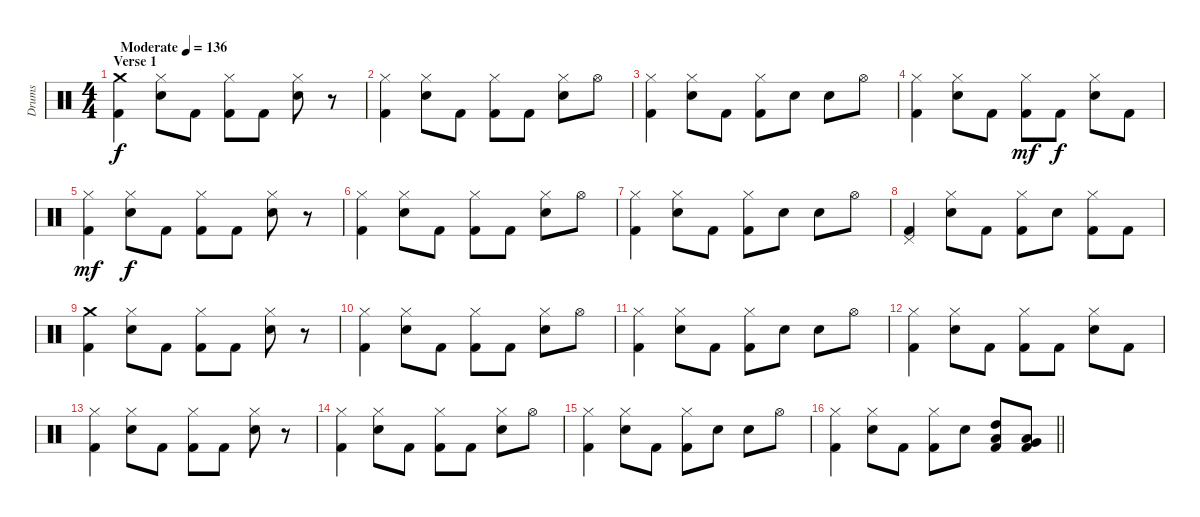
\track ("Drums" "Drums") {instrument percussion}
\staff {score}
\articulation defaults
\ts (4 4)
\section ("" "Verse 1")
\tempo (136 "Moderate")
\clef neutral
\ks c
("Crash medium (hit)" "Kick (hit) 2").4{dy f} ("Hi-Hat (closed)" "Snare (hit) 2").8 "Kick (hit) 2".8 ("Hi-Hat (closed)" "Kick (hit) 2").8 "Kick (hit) 2".8 ("Hi-Hat (closed)" "Snare (hit) 2").8 r.8 |
("Hi-Hat (closed)" "Kick (hit) 2").4 ("Hi-Hat (closed)" "Snare (hit) 2").8 "Kick (hit) 2".8 ("Hi-Hat (closed)" "Kick (hit) 2").8 "Kick (hit) 2".8 ("Hi-Hat (closed)" "Snare (hit) 2").8 "Hi-Hat (open)".8 |
("Hi-Hat (closed)" "Kick (hit) 2").4 ("Hi-Hat (closed)" "Snare (hit) 2").8 "Kick (hit) 2".8 ("Hi-Hat (closed)" "Kick (hit) 2").8 "Snare (hit) 2".8 "Snare (hit) 2".8 "Hi-Hat (open)".8 |
("Hi-Hat (closed)" "Kick (hit) 2").4 ("Hi-Hat (closed)" "Snare (hit) 2").8 "Kick (hit) 2".8 ("Hi-Hat (closed)" "Kick (hit) 2").8{dy mf} "Kick (hit) 2".8{dy f} ("Hi-Hat (closed)" "Snare (hit) 2").8 "Kick (hit) 2".8 |
("Hi-Hat (closed)" "Kick (hit) 2").4{dy mf} ("Hi-Hat (closed)" "Snare (hit) 2").8{dy f} "Kick (hit) 2".8 ("Hi-Hat (closed)" "Kick (hit) 2").8 "Kick (hit) 2".8 ("Hi-Hat (closed)" "Snare (hit) 2").8 r.8 |
("Hi-Hat (closed)" "Kick (hit) 2").4 ("Hi-Hat (closed)" "Snare (hit) 2").8 "Kick (hit) 2".8 ("Hi-Hat (closed)" "Kick (hit) 2").8 "Kick (hit) 2".8 ("Hi-Hat (closed)" "Snare (hit) 2").8 "Hi-Hat (open)".8 |
("Hi-Hat (closed)" "Kick (hit) 2").4 ("Hi-Hat (closed)" "Snare (hit) 2").8 "Kick (hit) 2".8 ("Hi-Hat (closed)" "Kick (hit) 2").8 "Snare (hit) 2".8 "Snare (hit) 2".8 "Hi-Hat (open)".8 |
("Pedal Hi-Hat (hit)" "Kick (hit) 2").4 ("Hi-Hat (closed)" "Snare (hit) 2").8 "Kick (hit) 2".8 ("Hi-Hat (closed)" "Kick (hit) 2").8 "Snare (hit) 2".8 ("Hi-Hat (closed)" "Kick (hit) 2").8 "Kick (hit) 2".8 |
("Crash medium (hit)" "Kick (hit) 2").4 ("Hi-Hat (closed)" "Snare (hit) 2").8 "Kick (hit) 2".8 ("Hi-Hat (closed)" "Kick (hit) 2").8 "Kick (hit) 2".8 ("Hi-Hat (closed)" "Snare (hit) 2").8 r.8 |
("Hi-Hat (closed)" "Kick (hit) 2").4 ("Hi-Hat (closed)" "Snare (hit) 2").8 "Kick (hit) 2".8 ("Hi-Hat (closed)" "Kick (hit) 2").8 "Kick (hit) 2".8 ("Hi-Hat (closed)" "Snare (hit) 2").8 "Hi-Hat (open)".8 |
("Hi-Hat (closed)" "Kick (hit) 2").4 ("Hi-Hat (closed)" "Snare (hit) 2").8 "Kick (hit) 2".8 ("Hi-Hat (closed)" "Kick (hit) 2").8 "Snare (hit) 2".8 "Snare (hit) 2".8 "Hi-Hat (open)".8 |
("Hi-Hat (closed)" "Kick (hit) 2").4 ("Hi-Hat (closed)" "Snare (hit) 2").8 "Kick (hit) 2".8 ("Hi-Hat (closed)" "Kick (hit) 2").8 "Kick (hit) 2".8 ("Hi-Hat (closed)" "Snare (hit) 2").8 "Kick (hit) 2".8 |
("Hi-Hat (closed)" "Kick (hit) 2").4 ("Hi-Hat (closed)" "Snare (hit) 2").8 "Kick (hit) 2".8 ("Hi-Hat (closed)" "Kick (hit) 2").8 "Kick (hit) 2".8 ("Hi-Hat (closed)" "Snare (hit) 2").8 r.8 |
("Hi-Hat (closed)" "Kick (hit) 2").4 ("Hi-Hat (closed)" "Snare (hit) 2").8 "Kick (hit) 2".8 ("Hi-Hat (closed)" "Kick (hit) 2").8 "Kick (hit) 2".8 ("Hi-Hat (closed)" "Snare (hit) 2").8 "Hi-Hat (open)".8 |
("Hi-Hat (closed)" "Kick (hit) 2").4 ("Hi-Hat (closed)" "Snare (hit) 2").8 "Kick (hit) 2".8 ("Hi-Hat (closed)" "Kick (hit) 2").8 "Snare (hit) 2".8 "Snare (hit) 2".8 "Hi-Hat (open)".8 |
\barLineRight lightlight
("Hi-Hat (closed)" "Kick (hit) 2").4 ("Hi-Hat (closed)" "Snare (hit) 2").8 "Kick (hit) 2".8 ("Hi-Hat (closed)" "Kick (hit) 2").8 "Snare (hit) 2".8 ("High Tom (hit)" "Low Tom (hit)" "Kick (hit) 2").8 ("Very Low Tom (hit)" "Low Floor Tom (hit)" "Kick (hit) 2").8
